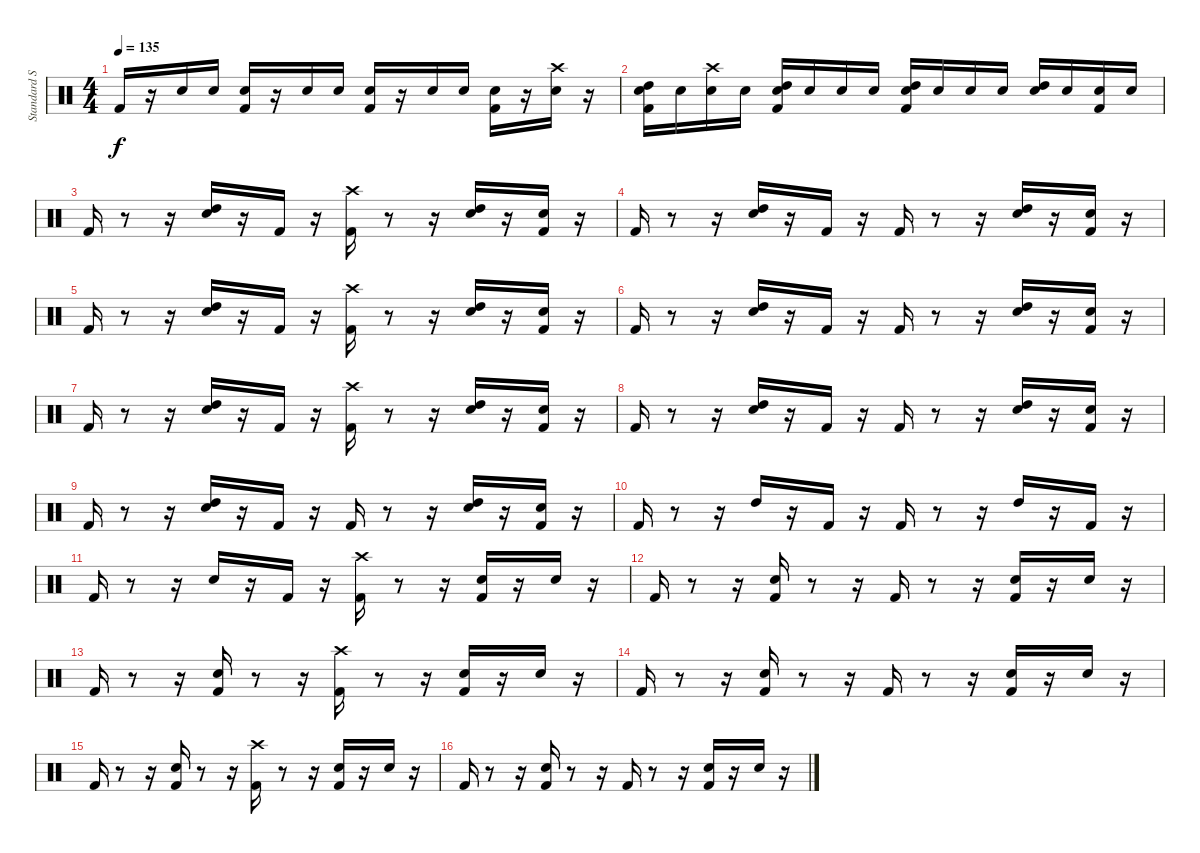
\track ("Standard Set 1" "Standard S") {instrument percussion}
\staff {score}
\articulation defaults
\ts (4 4)
\tempo 135
\clef neutral
\ks c "Kick (hit) 2".16{dy f}
r.16 "Snare (hit) 2".16 "Snare (hit) 2".16 ("Snare (hit) 2" "Kick (hit) 2").16 r.16 "Snare (hit) 2".16 "Snare (hit) 2".16 ("Snare (hit) 2" "Kick (hit) 2").16 r.16 "Snare (hit) 2".16 "Snare (hit) 2".16 ("Snare (hit) 2" "Kick (hit) 2").16 r.16 ("Snare (hit) 2" "Crash high (hit)").16 r.16 |
("Snare (hit) 2" "High Tom (hit)" "Kick (hit) 2").16 "Snare (hit) 2".16 ("Snare (hit) 2" "Crash high (hit)").16 "Snare (hit) 2".16 ("Snare (hit) 2" "High Tom (hit)" "Kick (hit) 2").16 "Snare (hit) 2".16 "Snare (hit) 2".16 "Snare (hit) 2".16 ("Snare (hit) 2" "High Tom (hit)" "Kick (hit) 2").16 "Snare (hit) 2".16 "Snare (hit) 2".16 "Snare (hit) 2".16 ("Snare (hit) 2" "High Tom (hit)").16 "Snare (hit) 2".16 ("Snare (hit) 2" "Kick (hit) 2").16 "Snare (hit) 2".16 |
"Kick (hit) 2".16 r.8 r.16 ("Snare (hit) 2" "High Tom (hit)").16 r.16 "Kick (hit) 2".16 r.16 ("Kick (hit) 2" "Crash high (hit)").16 r.8 r.16 ("Snare (hit) 2" "High Tom (hit)").16 r.16 ("Snare (hit) 2" "Kick (hit) 2").16 r.16 |
"Kick (hit) 2".16 r.8 r.16 ("Snare (hit) 2" "High Tom (hit)").16 r.16 "Kick (hit) 2".16 r.16 "Kick (hit) 2".16 r.8 r.16 ("Snare (hit) 2" "High Tom (hit)").16 r.16 ("Snare (hit) 2" "Kick (hit) 2").16 r.16 |
"Kick (hit) 2".16 r.8 r.16 ("Snare (hit) 2" "High Tom (hit)").16 r.16 "Kick (hit) 2".16 r.16 ("Kick (hit) 2" "Crash high (hit)").16 r.8 r.16 ("Snare (hit) 2" "High Tom (hit)").16 r.16 ("Snare (hit) 2" "Kick (hit) 2").16 r.16 |
"Kick (hit) 2".16 r.8 r.16 ("Snare (hit) 2" "High Tom (hit)").16 r.16 "Kick (hit) 2".16 r.16 "Kick (hit) 2".16 r.8 r.16 ("Snare (hit) 2" "High Tom (hit)").16 r.16 ("Snare (hit) 2" "Kick (hit) 2").16 r.16 |
"Kick (hit) 2".16 r.8 r.16 ("Snare (hit) 2" "High Tom (hit)").16 r.16 "Kick (hit) 2".16 r.16 ("Kick (hit) 2" "Crash high (hit)").16 r.8 r.16 ("Snare (hit) 2" "High Tom (hit)").16 r.16 ("Snare (hit) 2" "Kick (hit) 2").16 r.16 |
"Kick (hit) 2".16 r.8 r.16 ("Snare (hit) 2" "High Tom (hit)").16 r.16 "Kick (hit) 2".16 r.16 "Kick (hit) 2".16 r.8 r.16 ("Snare (hit) 2" "High Tom (hit)").16 r.16 ("Snare (hit) 2" "Kick (hit) 2").16 r.16 |
"Kick (hit) 2".16 r.8 r.16 ("Snare (hit) 2" "High Tom (hit)").16 r.16 "Kick (hit) 2".16 r.16 "Kick (hit) 2".16 r.8 r.16 ("Snare (hit) 2" "High Tom (hit)").16 r.16 ("Snare (hit) 2" "Kick (hit) 2").16 r.16 |
"Kick (hit) 2".16 r.8 r.16 "High Tom (hit)".16 r.16 "Kick (hit) 2".16 r.16 "Kick (hit) 2".16 r.8 r.16 "High Tom (hit)".16 r.16 "Kick (hit) 2".16 r.16 |
"Kick (hit) 2".16 r.8 r.16 "Snare (hit) 2".16 r.16 "Kick (hit) 2".16 r.16 ("Kick (hit) 2" "Crash high (hit)").16 r.8 r.16 ("Snare (hit) 2" "Kick (hit) 2").16 r.16 "Snare (hit) 2".16 r.16 |
"Kick (hit) 2".16 r.8 r.16 ("Snare (hit) 2" "Kick (hit) 2").16 r.8 r.16 "Kick (hit) 2".16 r.8 r.16 ("Snare (hit) 2" "Kick (hit) 2").16 r.16 "Snare (hit) 2".16 r.16 |
"Kick (hit) 2".16 r.8 r.16 ("Snare (hit) 2" "Kick (hit) 2").16 r.8 r.16 ("Kick (hit) 2" "Crash high (hit)").16 r.8 r.16 ("Snare (hit) 2" "Kick (hit) 2").16 r.16 "Snare (hit) 2".16 r.16 |
"Kick (hit) 2".16 r.8 r.16 ("Snare (hit) 2" "Kick (hit) 2").16 r.8 r.16 "Kick (hit) 2".16 r.8 r.16 ("Snare (hit) 2" "Kick (hit) 2").16 r.16 "Snare (hit) 2".16 r.16 |
"Kick (hit) 2".16 r.8 r.16 ("Snare (hit) 2" "Kick (hit) 2").16 r.8 r.16 ("Kick (hit) 2" "Crash high (hit)").16 r.8 r.16 ("Snare (hit) 2" "Kick (hit) 2").16 r.16 "Snare (hit) 2".16 r.16 |
"Kick (hit) 2".16 r.8 r.16 ("Snare (hit) 2" "Kick (hit) 2").16 r.8 r.16 "Kick (hit) 2".16 r.8 r.16 ("Snare (hit) 2" "Kick (hit) 2").16 r.16 "Snare (hit) 2".16 r.16
